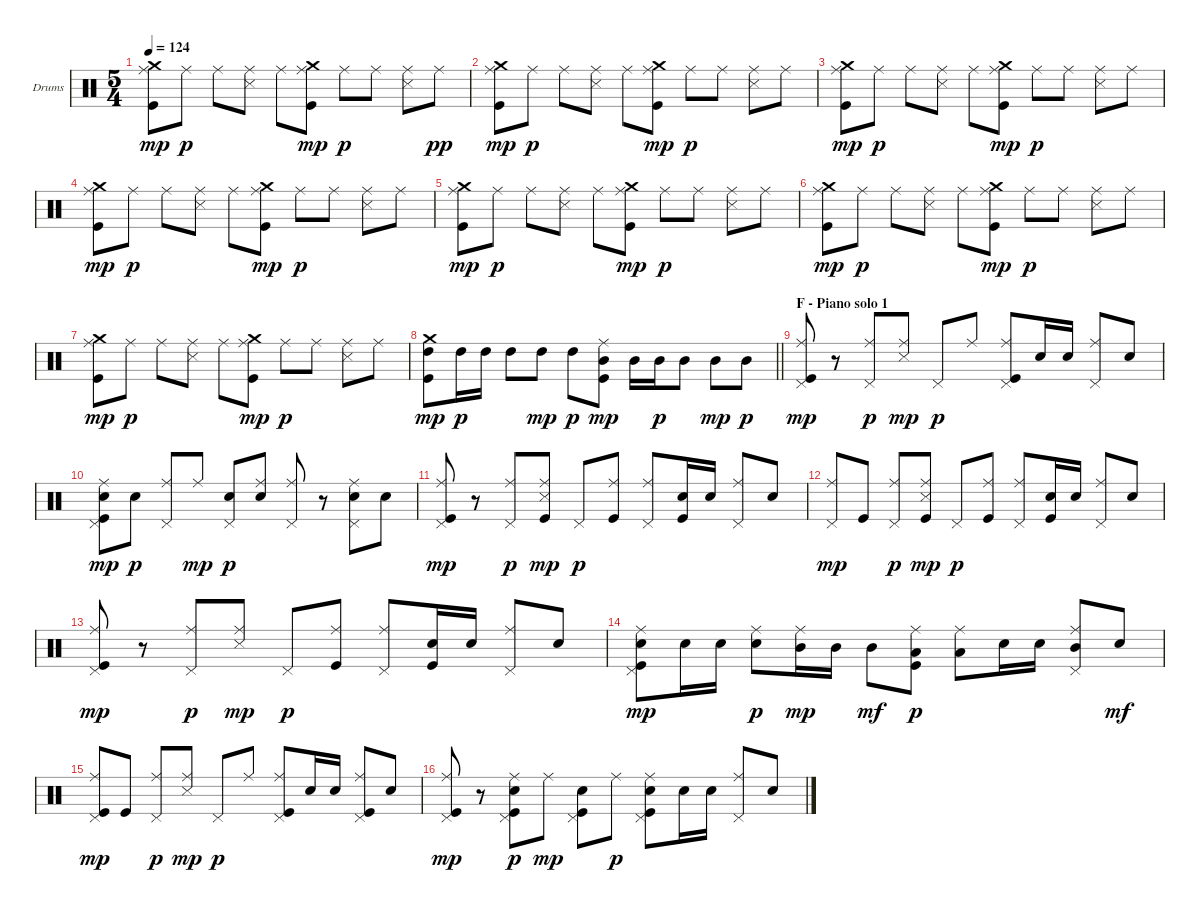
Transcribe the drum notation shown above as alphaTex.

\bracketExtendMode groupsimilarinstruments
\firstSystemTrackNameOrientation horizontal
\otherSystemsTrackNameOrientation horizontal
\track ("Drumkit" "Drums") {instrument percussion}
\staff {score}
\articulation defaults
\ts (5 4)
\tempo 124
\clef neutral
\ks aminor
("Crash medium (hit)" "Ride (middle)" "Kick (hit)").8{dy mp} "Ride (middle)".8{dy p} "Ride (middle)".8 ("Ride (middle)" "Snare (side stick) 3").8 "Ride (middle)".8 ("Crash medium (hit)" "Ride (middle)" "Kick (hit)").8{dy mp} "Ride (middle)".8{dy p} "Ride (middle)".8 ("Ride (middle)" "Snare (side stick) 3").8 "Ride (middle)".8{dy pp} |
("Crash medium (hit)" "Ride (middle)" "Kick (hit)").8{dy mp} "Ride (middle)".8{dy p} "Ride (middle)".8 ("Ride (middle)" "Snare (side stick) 3").8 "Ride (middle)".8 ("Crash medium (hit)" "Ride (middle)" "Kick (hit)").8{dy mp} "Ride (middle)".8{dy p} "Ride (middle)".8 ("Ride (middle)" "Snare (side stick) 3").8 "Ride (middle)".8 |
("Crash medium (hit)" "Ride (middle)" "Kick (hit)").8{dy mp} "Ride (middle)".8{dy p} "Ride (middle)".8 ("Ride (middle)" "Snare (side stick) 3").8 "Ride (middle)".8 ("Crash medium (hit)" "Ride (middle)" "Kick (hit)").8{dy mp} "Ride (middle)".8{dy p} "Ride (middle)".8 ("Ride (middle)" "Snare (side stick) 3").8 "Ride (middle)".8 |
("Crash medium (hit)" "Ride (middle)" "Kick (hit)").8{dy mp} "Ride (middle)".8{dy p} "Ride (middle)".8 ("Ride (middle)" "Snare (side stick) 3").8 "Ride (middle)".8 ("Crash medium (hit)" "Ride (middle)" "Kick (hit)").8{dy mp} "Ride (middle)".8{dy p} "Ride (middle)".8 ("Ride (middle)" "Snare (side stick) 3").8 "Ride (middle)".8 |
("Crash medium (hit)" "Ride (middle)" "Kick (hit)").8{dy mp} "Ride (middle)".8{dy p} "Ride (middle)".8 ("Ride (middle)" "Snare (side stick) 3").8 "Ride (middle)".8 ("Crash medium (hit)" "Ride (middle)" "Kick (hit)").8{dy mp} "Ride (middle)".8{dy p} "Ride (middle)".8 ("Ride (middle)" "Snare (side stick) 3").8 "Ride (middle)".8 |
("Crash medium (hit)" "Ride (middle)" "Kick (hit)").8{dy mp} "Ride (middle)".8{dy p} "Ride (middle)".8 ("Ride (middle)" "Snare (side stick) 3").8 "Ride (middle)".8 ("Crash medium (hit)" "Ride (middle)" "Kick (hit)").8{dy mp} "Ride (middle)".8{dy p} "Ride (middle)".8 ("Ride (middle)" "Snare (side stick) 3").8 "Ride (middle)".8 |
("Crash medium (hit)" "Ride (middle)" "Kick (hit)").8{dy mp} "Ride (middle)".8{dy p} "Ride (middle)".8 ("Ride (middle)" "Snare (side stick) 3").8 "Ride (middle)".8 ("Crash medium (hit)" "Ride (middle)" "Kick (hit)").8{dy mp} "Ride (middle)".8{dy p} "Ride (middle)".8 ("Ride (middle)" "Snare (side stick) 3").8 "Ride (middle)".8 |
\barLineRight lightlight
("Crash medium (hit)" "High Tom (hit)" "Kick (hit)").8{dy mp} "High Tom (hit)".16{dy p} "High Tom (hit)".16 "High Tom (hit)".8 "High Tom (hit)".8{dy mp} "High Tom (hit)".8{dy p} ("Ride (middle)" "Mid Tom (hit)" "Kick (hit)").8{dy mp} "Mid Tom (hit)".16 "Mid Tom (hit)".16{dy p} "Mid Tom (hit)".8 "Mid Tom (hit)".8{dy mp} "Mid Tom (hit)".8{dy p} |
\section ("" "F - Piano solo 1")
("Ride (middle)" "Pedal Hi-Hat (hit)" "Kick (hit)").8{dy mp} r.8 ("Ride (middle)" "Pedal Hi-Hat (hit)").8{dy p} ("Ride (middle)" "Snare (side stick) 3").8{dy mp} "Pedal Hi-Hat (hit)".8{dy p} "Ride (middle)".8 ("Ride (middle)" "Pedal Hi-Hat (hit)" "Kick (hit)").8 "Snare (hit) 2".16 "Snare (hit) 2".16 ("Ride (middle)" "Pedal Hi-Hat (hit)").8 "Snare (hit) 2".8 |
("Ride (middle)" "Snare (hit) 2" "Pedal Hi-Hat (hit)" "Kick (hit)").8{dy mp} "Snare (hit) 2".8{dy p} ("Ride (middle)" "Pedal Hi-Hat (hit)").8 "Ride (middle)".8{dy mp} ("Snare (hit) 2" "Pedal Hi-Hat (hit)").8{dy p} ("Ride (middle)" "Snare (hit) 2").8 ("Ride (middle)" "Pedal Hi-Hat (hit)").8 r.8 ("Ride (middle)" "Snare (hit) 2" "Pedal Hi-Hat (hit)").8 "Snare (hit) 2".8 |
("Ride (middle)" "Pedal Hi-Hat (hit)" "Kick (hit)").8{dy mp} r.8 ("Ride (middle)" "Pedal Hi-Hat (hit)").8{dy p} ("Ride (middle)" "Snare (side stick) 3" "Kick (hit)").8{dy mp} "Pedal Hi-Hat (hit)".8{dy p} ("Ride (middle)" "Kick (hit)").8 ("Ride (middle)" "Pedal Hi-Hat (hit)").8 ("Snare (hit) 2" "Kick (hit)").16 "Snare (hit) 2".16 ("Ride (middle)" "Pedal Hi-Hat (hit)").8 "Snare (hit) 2".8 |
("Ride (middle)" "Pedal Hi-Hat (hit)").8{dy mp} "Kick (hit)".8 ("Ride (middle)" "Pedal Hi-Hat (hit)").8{dy p} ("Ride (middle)" "Snare (side stick) 3" "Kick (hit)").8{dy mp} "Pedal Hi-Hat (hit)".8{dy p} ("Ride (middle)" "Kick (hit)").8 ("Ride (middle)" "Pedal Hi-Hat (hit)").8 ("Snare (hit) 2" "Kick (hit)").16 "Snare (hit) 2".16 ("Ride (middle)" "Pedal Hi-Hat (hit)").8 "Snare (hit) 2".8 |
("Ride (middle)" "Pedal Hi-Hat (hit)" "Kick (hit)").8{dy mp} r.8 ("Ride (middle)" "Pedal Hi-Hat (hit)").8{dy p} ("Ride (middle)" "Snare (side stick) 3").8{dy mp} "Pedal Hi-Hat (hit)".8{dy p} ("Ride (middle)" "Kick (hit)").8 ("Ride (middle)" "Pedal Hi-Hat (hit)").8 ("Snare (hit) 2" "Kick (hit)").16 "Snare (hit) 2".16 ("Ride (middle)" "Pedal Hi-Hat (hit)").8 "Snare (hit) 2".8 |
("Ride (middle)" "Snare (hit) 2" "Pedal Hi-Hat (hit)" "Kick (hit)").8{dy mp} "Snare (hit) 2".16 "Snare (hit) 2".16 ("Ride (middle)" "Snare (hit) 2").8{dy p} ("Ride (middle)" "Mid Tom (hit)").16{dy mp} "Mid Tom (hit)".16 "Mid Tom (hit)".8{dy mf} ("Ride (middle)" "Low Tom (hit)" "Kick (hit)").8{dy p} ("Ride (middle)" "Low Tom (hit)").8 "Snare (hit) 2".16 "Snare (hit) 2".16 ("Ride (middle)" "Mid Tom (hit)" "Pedal Hi-Hat (hit)").8 "Snare (hit) 2".8{dy mf} |
("Ride (middle)" "Pedal Hi-Hat (hit)" "Kick (hit)").8{dy mp} "Kick (hit)".8 ("Ride (middle)" "Pedal Hi-Hat (hit)").8{dy p} ("Ride (middle)" "Snare (side stick) 3").8{dy mp} "Pedal Hi-Hat (hit)".8{dy p} "Ride (middle)".8 ("Ride (middle)" "Pedal Hi-Hat (hit)" "Kick (hit)").8 "Snare (hit) 2".16 "Snare (hit) 2".16 ("Ride (middle)" "Pedal Hi-Hat (hit)" "Kick (hit)").8 "Snare (hit) 2".8 |
("Ride (middle)" "Pedal Hi-Hat (hit)" "Kick (hit)").8{dy mp} r.8 ("Ride (middle)" "Snare (hit) 2" "Pedal Hi-Hat (hit)" "Kick (hit)").8{dy p} "Ride (middle)".8{dy mp} ("Snare (hit) 2" "Pedal Hi-Hat (hit)" "Kick (hit)").8 "Ride (middle)".8{dy p} ("Ride (middle)" "Snare (hit) 2" "Pedal Hi-Hat (hit)" "Kick (hit)").8 "Snare (hit) 2".16 "Snare (hit) 2".16 ("Ride (middle)" "Pedal Hi-Hat (hit)").8 "Snare (hit) 2".8
